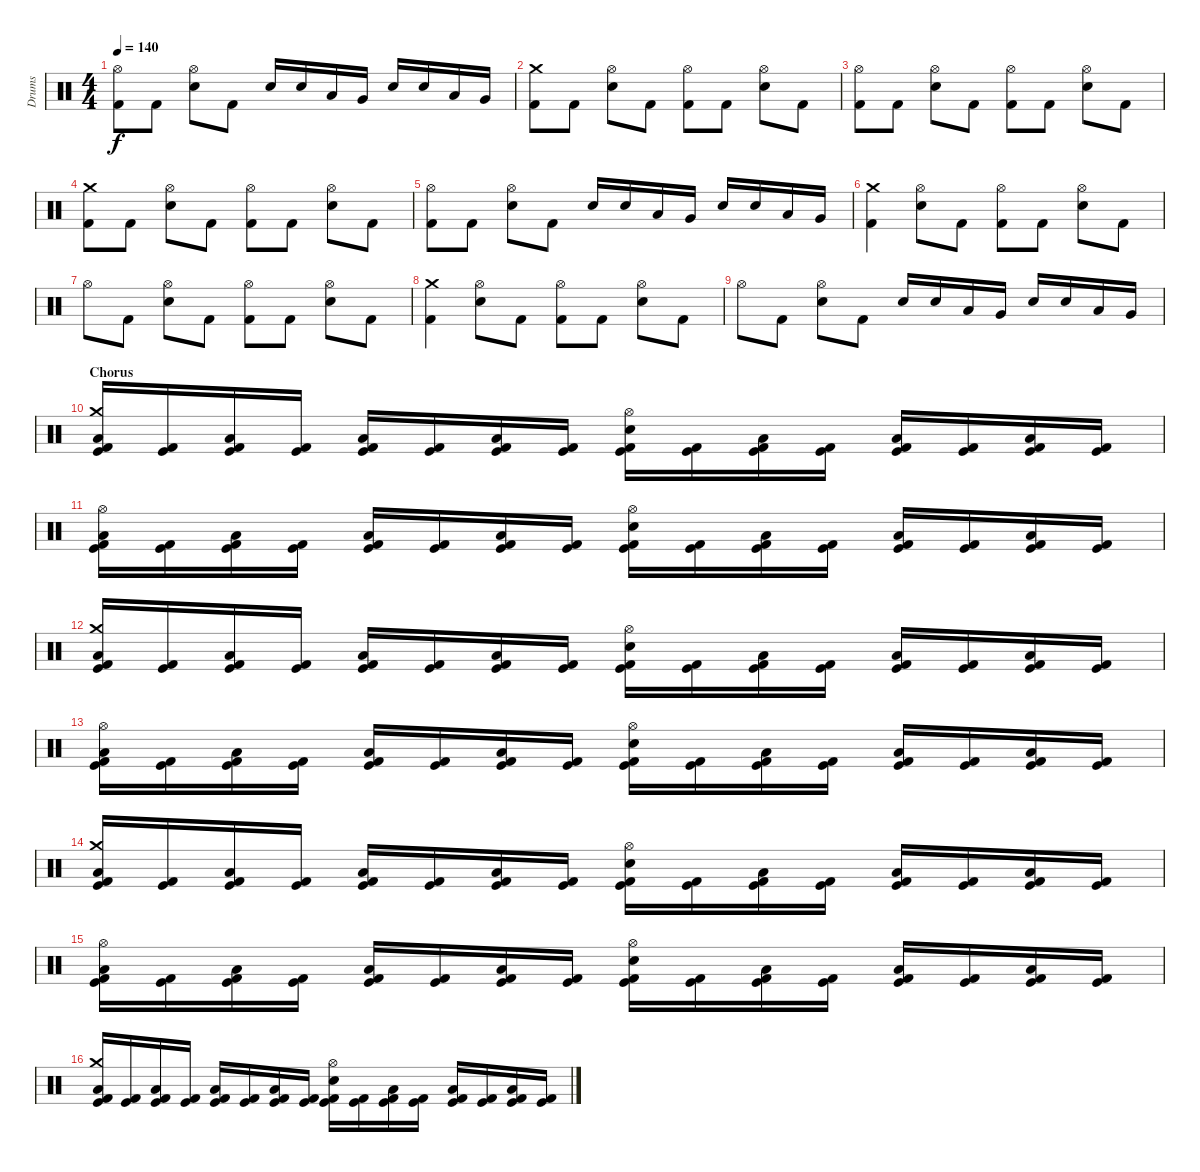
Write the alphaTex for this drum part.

\track ("Drums" "Drums") {instrument percussion}
\staff {score}
\articulation defaults
\ts (4 4)
\tempo 140
\clef neutral
\ks c
("Hi-Hat (open)" "Kick (hit) 2").8{dy f} "Kick (hit) 2".8 ("Hi-Hat (open)" "Electric Snare (hit)").8 "Kick (hit) 2".8 "Electric Snare (hit)".16 "Electric Snare (hit)".16 "Low Tom (hit)".16 "Very Low Tom (hit)".16 "Electric Snare (hit)".16 "Electric Snare (hit)".16 "Low Tom (hit)".16 "Very Low Tom (hit)".16 |
("Crash medium (hit)" "Kick (hit) 2").8 "Kick (hit) 2".8 ("Hi-Hat (open)" "Electric Snare (hit)").8 "Kick (hit) 2".8 ("Hi-Hat (open)" "Kick (hit) 2").8 "Kick (hit) 2".8 ("Hi-Hat (open)" "Electric Snare (hit)").8 "Kick (hit) 2".8 |
("Hi-Hat (open)" "Kick (hit) 2").8 "Kick (hit) 2".8 ("Hi-Hat (open)" "Electric Snare (hit)").8 "Kick (hit) 2".8 ("Hi-Hat (open)" "Kick (hit) 2").8 "Kick (hit) 2".8 ("Hi-Hat (open)" "Electric Snare (hit)").8 "Kick (hit) 2".8 |
("Crash medium (hit)" "Kick (hit) 2").8 "Kick (hit) 2".8 ("Hi-Hat (open)" "Electric Snare (hit)").8 "Kick (hit) 2".8 ("Hi-Hat (open)" "Kick (hit) 2").8 "Kick (hit) 2".8 ("Hi-Hat (open)" "Electric Snare (hit)").8 "Kick (hit) 2".8 |
("Hi-Hat (open)" "Kick (hit) 2").8 "Kick (hit) 2".8 ("Hi-Hat (open)" "Electric Snare (hit)").8 "Kick (hit) 2".8 "Electric Snare (hit)".16 "Electric Snare (hit)".16 "Low Tom (hit)".16 "Very Low Tom (hit)".16 "Electric Snare (hit)".16 "Electric Snare (hit)".16 "Low Tom (hit)".16 "Very Low Tom (hit)".16 |
("Crash medium (hit)" "Kick (hit) 2").4 ("Hi-Hat (open)" "Electric Snare (hit)").8 "Kick (hit) 2".8 ("Hi-Hat (open)" "Kick (hit) 2").8 "Kick (hit) 2".8 ("Hi-Hat (open)" "Electric Snare (hit)").8 "Kick (hit) 2".8 |
"Hi-Hat (open)".8 "Kick (hit) 2".8 ("Hi-Hat (open)" "Electric Snare (hit)").8 "Kick (hit) 2".8 ("Hi-Hat (open)" "Kick (hit) 2").8 "Kick (hit) 2".8 ("Hi-Hat (open)" "Electric Snare (hit)").8 "Kick (hit) 2".8 |
("Crash medium (hit)" "Kick (hit) 2").4 ("Hi-Hat (open)" "Electric Snare (hit)").8 "Kick (hit) 2".8 ("Hi-Hat (open)" "Kick (hit) 2").8 "Kick (hit) 2".8 ("Hi-Hat (open)" "Electric Snare (hit)").8 "Kick (hit) 2".8 |
"Hi-Hat (open)".8 "Kick (hit) 2".8 ("Hi-Hat (open)" "Electric Snare (hit)").8 "Kick (hit) 2".8 "Electric Snare (hit)".16 "Electric Snare (hit)".16 "Low Tom (hit)".16 "Very Low Tom (hit)".16 "Electric Snare (hit)".16 "Electric Snare (hit)".16 "Low Tom (hit)".16 "Very Low Tom (hit)".16 |
\section ("" "Chorus")
("Crash medium (hit)" "Kick (hit) 2" "Kick (hit)" "Low Tom (hit)").16 ("Kick (hit) 2" "Kick (hit)").16 ("Kick (hit) 2" "Kick (hit)" "Low Tom (hit)").16 ("Kick (hit) 2" "Kick (hit)").16 ("Kick (hit) 2" "Kick (hit)" "Low Tom (hit)").16 ("Kick (hit) 2" "Kick (hit)").16 ("Kick (hit) 2" "Kick (hit)" "Low Tom (hit)").16 ("Kick (hit) 2" "Kick (hit)").16 ("Hi-Hat (open)" "Kick (hit) 2" "Kick (hit)" "Electric Snare (hit)").16 ("Kick (hit) 2" "Kick (hit)").16 ("Kick (hit) 2" "Kick (hit)" "Low Tom (hit)").16 ("Kick (hit) 2" "Kick (hit)").16 ("Kick (hit) 2" "Kick (hit)" "Low Tom (hit)").16 ("Kick (hit) 2" "Kick (hit)").16 ("Kick (hit) 2" "Kick (hit)" "Low Tom (hit)").16 ("Kick (hit) 2" "Kick (hit)").16 |
("Hi-Hat (open)" "Kick (hit) 2" "Kick (hit)" "Low Tom (hit)").16 ("Kick (hit) 2" "Kick (hit)").16 ("Kick (hit) 2" "Kick (hit)" "Low Tom (hit)").16 ("Kick (hit) 2" "Kick (hit)").16 ("Kick (hit) 2" "Kick (hit)" "Low Tom (hit)").16 ("Kick (hit) 2" "Kick (hit)").16 ("Kick (hit) 2" "Kick (hit)" "Low Tom (hit)").16 ("Kick (hit) 2" "Kick (hit)").16 ("Hi-Hat (open)" "Kick (hit) 2" "Kick (hit)" "Electric Snare (hit)").16 ("Kick (hit) 2" "Kick (hit)").16 ("Kick (hit) 2" "Kick (hit)" "Low Tom (hit)").16 ("Kick (hit) 2" "Kick (hit)").16 ("Kick (hit) 2" "Kick (hit)" "Low Tom (hit)").16 ("Kick (hit) 2" "Kick (hit)").16 ("Kick (hit) 2" "Kick (hit)" "Low Tom (hit)").16 ("Kick (hit) 2" "Kick (hit)").16 |
("Crash medium (hit)" "Kick (hit) 2" "Kick (hit)" "Low Tom (hit)").16 ("Kick (hit) 2" "Kick (hit)").16 ("Kick (hit) 2" "Kick (hit)" "Low Tom (hit)").16 ("Kick (hit) 2" "Kick (hit)").16 ("Kick (hit) 2" "Kick (hit)" "Low Tom (hit)").16 ("Kick (hit) 2" "Kick (hit)").16 ("Kick (hit) 2" "Kick (hit)" "Low Tom (hit)").16 ("Kick (hit) 2" "Kick (hit)").16 ("Hi-Hat (open)" "Kick (hit) 2" "Kick (hit)" "Electric Snare (hit)").16 ("Kick (hit) 2" "Kick (hit)").16 ("Kick (hit) 2" "Kick (hit)" "Low Tom (hit)").16 ("Kick (hit) 2" "Kick (hit)").16 ("Kick (hit) 2" "Kick (hit)" "Low Tom (hit)").16 ("Kick (hit) 2" "Kick (hit)").16 ("Kick (hit) 2" "Kick (hit)" "Low Tom (hit)").16 ("Kick (hit) 2" "Kick (hit)").16 |
("Hi-Hat (open)" "Kick (hit) 2" "Kick (hit)" "Low Tom (hit)").16 ("Kick (hit) 2" "Kick (hit)").16 ("Kick (hit) 2" "Kick (hit)" "Low Tom (hit)").16 ("Kick (hit) 2" "Kick (hit)").16 ("Kick (hit) 2" "Kick (hit)" "Low Tom (hit)").16 ("Kick (hit) 2" "Kick (hit)").16 ("Kick (hit) 2" "Kick (hit)" "Low Tom (hit)").16 ("Kick (hit) 2" "Kick (hit)").16 ("Hi-Hat (open)" "Kick (hit) 2" "Kick (hit)" "Electric Snare (hit)").16 ("Kick (hit) 2" "Kick (hit)").16 ("Kick (hit) 2" "Kick (hit)" "Low Tom (hit)").16 ("Kick (hit) 2" "Kick (hit)").16 ("Kick (hit) 2" "Kick (hit)" "Low Tom (hit)").16 ("Kick (hit) 2" "Kick (hit)").16 ("Kick (hit) 2" "Kick (hit)" "Low Tom (hit)").16 ("Kick (hit) 2" "Kick (hit)").16 |
("Crash medium (hit)" "Kick (hit) 2" "Kick (hit)" "Low Tom (hit)").16 ("Kick (hit) 2" "Kick (hit)").16 ("Kick (hit) 2" "Kick (hit)" "Low Tom (hit)").16 ("Kick (hit) 2" "Kick (hit)").16 ("Kick (hit) 2" "Kick (hit)" "Low Tom (hit)").16 ("Kick (hit) 2" "Kick (hit)").16 ("Kick (hit) 2" "Kick (hit)" "Low Tom (hit)").16 ("Kick (hit) 2" "Kick (hit)").16 ("Hi-Hat (open)" "Kick (hit) 2" "Kick (hit)" "Electric Snare (hit)").16 ("Kick (hit) 2" "Kick (hit)").16 ("Kick (hit) 2" "Kick (hit)" "Low Tom (hit)").16 ("Kick (hit) 2" "Kick (hit)").16 ("Kick (hit) 2" "Kick (hit)" "Low Tom (hit)").16 ("Kick (hit) 2" "Kick (hit)").16 ("Kick (hit) 2" "Kick (hit)" "Low Tom (hit)").16 ("Kick (hit) 2" "Kick (hit)").16 |
("Hi-Hat (open)" "Kick (hit) 2" "Kick (hit)" "Low Tom (hit)").16 ("Kick (hit) 2" "Kick (hit)").16 ("Kick (hit) 2" "Kick (hit)" "Low Tom (hit)").16 ("Kick (hit) 2" "Kick (hit)").16 ("Kick (hit) 2" "Kick (hit)" "Low Tom (hit)").16 ("Kick (hit) 2" "Kick (hit)").16 ("Kick (hit) 2" "Kick (hit)" "Low Tom (hit)").16 ("Kick (hit) 2" "Kick (hit)").16 ("Hi-Hat (open)" "Kick (hit) 2" "Kick (hit)" "Electric Snare (hit)").16 ("Kick (hit) 2" "Kick (hit)").16 ("Kick (hit) 2" "Kick (hit)" "Low Tom (hit)").16 ("Kick (hit) 2" "Kick (hit)").16 ("Kick (hit) 2" "Kick (hit)" "Low Tom (hit)").16 ("Kick (hit) 2" "Kick (hit)").16 ("Kick (hit) 2" "Kick (hit)" "Low Tom (hit)").16 ("Kick (hit) 2" "Kick (hit)").16 |
("Crash medium (hit)" "Kick (hit) 2" "Kick (hit)" "Low Tom (hit)").16 ("Kick (hit) 2" "Kick (hit)").16 ("Kick (hit) 2" "Kick (hit)" "Low Tom (hit)").16 ("Kick (hit) 2" "Kick (hit)").16 ("Kick (hit) 2" "Kick (hit)" "Low Tom (hit)").16 ("Kick (hit) 2" "Kick (hit)").16 ("Kick (hit) 2" "Kick (hit)" "Low Tom (hit)").16 ("Kick (hit) 2" "Kick (hit)").16 ("Hi-Hat (open)" "Kick (hit) 2" "Kick (hit)" "Electric Snare (hit)").16 ("Kick (hit) 2" "Kick (hit)").16 ("Kick (hit) 2" "Kick (hit)" "Low Tom (hit)").16 ("Kick (hit) 2" "Kick (hit)").16 ("Kick (hit) 2" "Kick (hit)" "Low Tom (hit)").16 ("Kick (hit) 2" "Kick (hit)").16 ("Kick (hit) 2" "Kick (hit)" "Low Tom (hit)").16 ("Kick (hit) 2" "Kick (hit)").16
